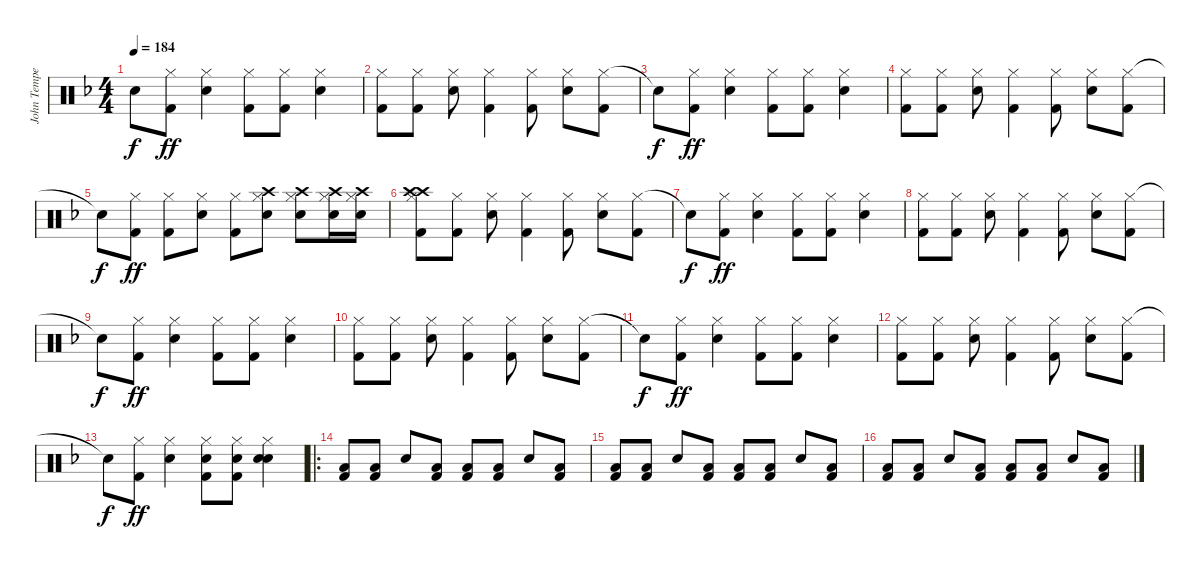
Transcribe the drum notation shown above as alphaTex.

\track ("John Tempesta " "John Tempe") {instrument percussion}
\staff {score}
\articulation defaults
\ts (4 4)
\tempo 184
\clef neutral
\ks f "Snare (hit)"{t}.8{dy f}
("Hi-Hat (closed)" "Kick (hit) 2").8{dy ff} ("Hi-Hat (closed)" "Electric Snare (hit)").4 ("Hi-Hat (closed)" "Kick (hit) 2").8 ("Hi-Hat (closed)" "Kick (hit) 2").8 ("Hi-Hat (closed)" "Electric Snare (hit)").4 |
("Hi-Hat (closed)" "Kick (hit) 2").8 ("Hi-Hat (closed)" "Kick (hit) 2").8 ("Hi-Hat (closed)" "Electric Snare (hit)").8 ("Hi-Hat (closed)" "Kick (hit) 2").4 ("Hi-Hat (closed)" "Kick (hit) 2").8 ("Hi-Hat (closed)" "Electric Snare (hit)").8 ("Hi-Hat (closed)" "Kick (hit) 2").8 |
"Snare (hit)"{t}.8{dy f} ("Hi-Hat (closed)" "Kick (hit) 2").8{dy ff} ("Hi-Hat (closed)" "Electric Snare (hit)").4 ("Hi-Hat (closed)" "Kick (hit) 2").8 ("Hi-Hat (closed)" "Kick (hit) 2").8 ("Hi-Hat (closed)" "Electric Snare (hit)").4 |
("Hi-Hat (closed)" "Kick (hit) 2").8 ("Hi-Hat (closed)" "Kick (hit) 2").8 ("Hi-Hat (closed)" "Electric Snare (hit)").8 ("Hi-Hat (closed)" "Kick (hit) 2").4 ("Hi-Hat (closed)" "Kick (hit) 2").8 ("Hi-Hat (closed)" "Electric Snare (hit)").8 ("Hi-Hat (closed)" "Kick (hit) 2").8 |
"Snare (hit)"{t}.8{dy f} ("Hi-Hat (closed)" "Kick (hit) 2").8{dy ff} ("Hi-Hat (closed)" "Kick (hit) 2").8 ("Hi-Hat (closed)" "Electric Snare (hit)").8 ("Hi-Hat (closed)" "Kick (hit) 2").8 ("Crash high (hit)" "Hi-Hat (closed)" "Electric Snare (hit)").8 ("Crash high (hit)" "Hi-Hat (closed)" "Electric Snare (hit)").8 ("Crash high (hit)" "Hi-Hat (closed)" "Electric Snare (hit)").16 ("Crash high (hit)" "Hi-Hat (closed)" "Electric Snare (hit)").16 |
("Hi-Hat (closed)" "Kick (hit) 2" "Crash high (hit)" "Crash high (hit)").8 ("Hi-Hat (closed)" "Kick (hit) 2").8 ("Hi-Hat (closed)" "Electric Snare (hit)").8 ("Hi-Hat (closed)" "Kick (hit) 2").4 ("Hi-Hat (closed)" "Kick (hit) 2").8 ("Hi-Hat (closed)" "Electric Snare (hit)").8 ("Hi-Hat (closed)" "Kick (hit) 2").8 |
"Snare (hit)"{t}.8{dy f} ("Hi-Hat (closed)" "Kick (hit) 2").8{dy ff} ("Hi-Hat (closed)" "Electric Snare (hit)").4 ("Hi-Hat (closed)" "Kick (hit) 2").8 ("Hi-Hat (closed)" "Kick (hit) 2").8 ("Hi-Hat (closed)" "Electric Snare (hit)").4 |
("Hi-Hat (closed)" "Kick (hit) 2").8 ("Hi-Hat (closed)" "Kick (hit) 2").8 ("Hi-Hat (closed)" "Electric Snare (hit)").8 ("Hi-Hat (closed)" "Kick (hit) 2").4 ("Hi-Hat (closed)" "Kick (hit) 2").8 ("Hi-Hat (closed)" "Electric Snare (hit)").8 ("Hi-Hat (closed)" "Kick (hit) 2").8 |
"Snare (hit)"{t}.8{dy f} ("Hi-Hat (closed)" "Kick (hit) 2").8{dy ff} ("Hi-Hat (closed)" "Electric Snare (hit)").4 ("Hi-Hat (closed)" "Kick (hit) 2").8 ("Hi-Hat (closed)" "Kick (hit) 2").8 ("Hi-Hat (closed)" "Electric Snare (hit)").4 |
("Hi-Hat (closed)" "Kick (hit) 2").8 ("Hi-Hat (closed)" "Kick (hit) 2").8 ("Hi-Hat (closed)" "Electric Snare (hit)").8 ("Hi-Hat (closed)" "Kick (hit) 2").4 ("Hi-Hat (closed)" "Kick (hit) 2").8 ("Hi-Hat (closed)" "Electric Snare (hit)").8 ("Hi-Hat (closed)" "Kick (hit) 2").8 |
"Snare (hit)"{t}.8{dy f} ("Hi-Hat (closed)" "Kick (hit) 2").8{dy ff} ("Hi-Hat (closed)" "Electric Snare (hit)").4 ("Hi-Hat (closed)" "Kick (hit) 2").8 ("Hi-Hat (closed)" "Kick (hit) 2").8 ("Hi-Hat (closed)" "Electric Snare (hit)").4 |
("Hi-Hat (closed)" "Kick (hit) 2").8 ("Hi-Hat (closed)" "Kick (hit) 2").8 ("Hi-Hat (closed)" "Electric Snare (hit)").8 ("Hi-Hat (closed)" "Kick (hit) 2").4 ("Hi-Hat (closed)" "Kick (hit) 2").8 ("Hi-Hat (closed)" "Electric Snare (hit)").8 ("Hi-Hat (closed)" "Kick (hit) 2").8 |
"Snare (hit)"{t}.8{dy f} ("Hi-Hat (closed)" "Kick (hit) 2").8{dy ff} ("Hi-Hat (closed)" "Electric Snare (hit)").4 ("Hi-Hat (closed)" "Electric Snare (hit)" "Kick (hit) 2").8 ("Hi-Hat (closed)" "Electric Snare (hit)" "Kick (hit) 2").8 ("Hi-Hat (closed)" "Electric Snare (hit)" "Electric Snare (hit)").4 |
\ro
("Low Floor Tom (hit)" "Kick (hit) 2").8 ("Low Floor Tom (hit)" "Kick (hit) 2").8 "Electric Snare (hit)".8 ("Low Floor Tom (hit)" "Kick (hit) 2").8 ("Low Floor Tom (hit)" "Kick (hit) 2").8 ("Low Floor Tom (hit)" "Kick (hit) 2").8 "Electric Snare (hit)".8 ("Low Floor Tom (hit)" "Kick (hit) 2").8 |
("Low Floor Tom (hit)" "Kick (hit) 2").8 ("Low Floor Tom (hit)" "Kick (hit) 2").8 "Electric Snare (hit)".8 ("Low Floor Tom (hit)" "Kick (hit) 2").8 ("Low Floor Tom (hit)" "Kick (hit) 2").8 ("Low Floor Tom (hit)" "Kick (hit) 2").8 "Electric Snare (hit)".8 ("Low Floor Tom (hit)" "Kick (hit) 2").8 |
("Low Floor Tom (hit)" "Kick (hit) 2").8 ("Low Floor Tom (hit)" "Kick (hit) 2").8 "Electric Snare (hit)".8 ("Low Floor Tom (hit)" "Kick (hit) 2").8 ("Low Floor Tom (hit)" "Kick (hit) 2").8 ("Low Floor Tom (hit)" "Kick (hit) 2").8 "Electric Snare (hit)".8 ("Low Floor Tom (hit)" "Kick (hit) 2").8
